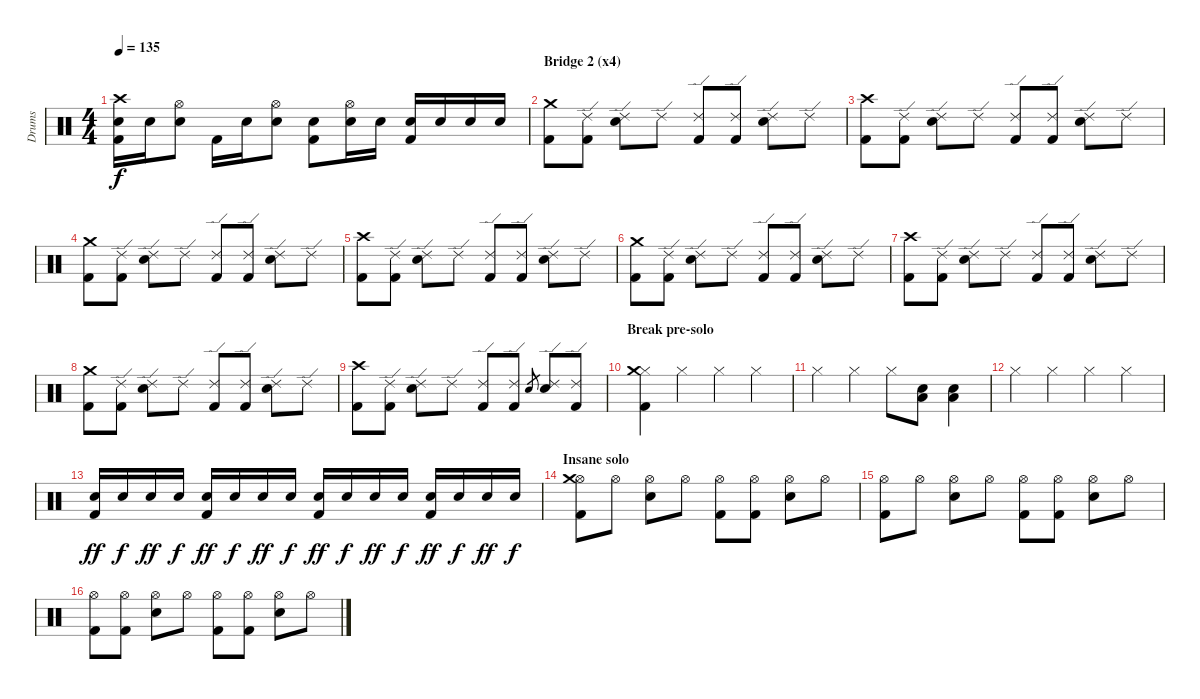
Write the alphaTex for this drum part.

\track ("Drums" "Drums") {instrument percussion}
\staff {score}
\articulation defaults
\ts (4 4)
\tempo 135
\clef neutral
\ks c
("Crash high (hit)" "Snare (hit) 2" "Kick (hit) 2").16{dy f} "Snare (hit) 2".16 ("Hi-Hat (open)" "Snare (hit) 2").8 "Kick (hit) 2".16 "Snare (hit) 2".16 ("Hi-Hat (open)" "Snare (hit) 2").8 ("Snare (hit) 2" "Kick (hit) 2").8 ("Hi-Hat (open)" "Snare (hit) 2").16 "Snare (hit) 2".16 ("Snare (hit) 2" "Kick (hit) 2").16 "Snare (hit) 2".16 "Snare (hit) 2".16 "Snare (hit) 2".16 |
\section ("" "Bridge 2 (x4)")
("Crash medium (hit)" "Kick (hit) 2").8 ("Ride (edge) 2" "Kick (hit) 2").8 ("Ride (edge) 2" "Snare (hit) 2").8 "Ride (edge) 2".8 ("Ride (edge) 2" "Kick (hit) 2").8 ("Ride (edge) 2" "Kick (hit) 2").8 ("Ride (edge) 2" "Snare (hit) 2").8 "Ride (edge) 2".8 |
("Crash high (hit)" "Kick (hit) 2").8 ("Ride (edge) 2" "Kick (hit) 2").8 ("Ride (edge) 2" "Snare (hit) 2").8 "Ride (edge) 2".8 ("Ride (edge) 2" "Kick (hit) 2").8 ("Ride (edge) 2" "Kick (hit) 2").8 ("Ride (edge) 2" "Snare (hit) 2").8 "Ride (edge) 2".8 |
("Crash medium (hit)" "Kick (hit) 2").8 ("Ride (edge) 2" "Kick (hit) 2").8 ("Ride (edge) 2" "Snare (hit) 2").8 "Ride (edge) 2".8 ("Ride (edge) 2" "Kick (hit) 2").8 ("Ride (edge) 2" "Kick (hit) 2").8 ("Ride (edge) 2" "Snare (hit) 2").8 "Ride (edge) 2".8 |
("Crash high (hit)" "Kick (hit) 2").8 ("Ride (edge) 2" "Kick (hit) 2").8 ("Ride (edge) 2" "Snare (hit) 2").8 "Ride (edge) 2".8 ("Ride (edge) 2" "Kick (hit) 2").8 ("Ride (edge) 2" "Kick (hit) 2").8 ("Ride (edge) 2" "Snare (hit) 2").8 "Ride (edge) 2".8 |
("Crash medium (hit)" "Kick (hit) 2").8 ("Ride (edge) 2" "Kick (hit) 2").8 ("Ride (edge) 2" "Snare (hit) 2").8 "Ride (edge) 2".8 ("Ride (edge) 2" "Kick (hit) 2").8 ("Ride (edge) 2" "Kick (hit) 2").8 ("Ride (edge) 2" "Snare (hit) 2").8 "Ride (edge) 2".8 |
("Crash high (hit)" "Kick (hit) 2").8 ("Ride (edge) 2" "Kick (hit) 2").8 ("Ride (edge) 2" "Snare (hit) 2").8 "Ride (edge) 2".8 ("Ride (edge) 2" "Kick (hit) 2").8 ("Ride (edge) 2" "Kick (hit) 2").8 ("Ride (edge) 2" "Snare (hit) 2").8 "Ride (edge) 2".8 |
("Crash medium (hit)" "Kick (hit) 2").8 ("Ride (edge) 2" "Kick (hit) 2").8 ("Ride (edge) 2" "Snare (hit) 2").8 "Ride (edge) 2".8 ("Ride (edge) 2" "Kick (hit) 2").8 ("Ride (edge) 2" "Kick (hit) 2").8 ("Ride (edge) 2" "Snare (hit) 2").8 "Ride (edge) 2".8 |
("Crash high (hit)" "Kick (hit) 2").8 ("Ride (edge) 2" "Kick (hit) 2").8 ("Ride (edge) 2" "Snare (hit) 2").8 "Ride (edge) 2".8 ("Ride (edge) 2" "Kick (hit) 2").8 ("Ride (edge) 2" "Kick (hit) 2").8 "Snare (hit) 2".8{gr} ("Ride (edge) 2" "Snare (hit) 2").8 ("Ride (edge) 2" "Kick (hit) 2").8 |
\section ("" "Break pre-solo")
("Hi-Hat (closed)" "Crash medium (hit)" "Kick (hit) 2").4 "Hi-Hat (closed)".4 "Hi-Hat (closed)".4 "Hi-Hat (closed)".4 |
"Hi-Hat (closed)".4 "Hi-Hat (closed)".4 "Hi-Hat (closed)".8 ("Low Tom (hit)" "Snare (hit) 2").8 ("Low Tom (hit)" "Snare (hit) 2").4 |
"Hi-Hat (closed)".4 "Hi-Hat (closed)".4 "Hi-Hat (closed)".4 "Hi-Hat (closed)".4 |
("Snare (hit) 2" "Kick (hit) 2").16{dy ff} "Snare (hit) 2".16{dy f} "Snare (hit) 2".16{dy ff} "Snare (hit) 2".16{dy f} ("Snare (hit) 2" "Kick (hit) 2").16{dy ff} "Snare (hit) 2".16{dy f} "Snare (hit) 2".16{dy ff} "Snare (hit) 2".16{dy f} ("Snare (hit) 2" "Kick (hit) 2").16{dy ff} "Snare (hit) 2".16{dy f} "Snare (hit) 2".16{dy ff} "Snare (hit) 2".16{dy f} ("Snare (hit) 2" "Kick (hit) 2").16{dy ff} "Snare (hit) 2".16{dy f} "Snare (hit) 2".16{dy ff} "Snare (hit) 2".16{dy f} |
\section ("" "Insane solo")
("Hi-Hat (open)" "Crash medium (hit)" "Kick (hit) 2").8 "Hi-Hat (open)".8 ("Hi-Hat (open)" "Snare (hit) 2").8 "Hi-Hat (open)".8 ("Hi-Hat (open)" "Kick (hit) 2").8 ("Hi-Hat (open)" "Kick (hit) 2").8 ("Hi-Hat (open)" "Snare (hit) 2").8 "Hi-Hat (open)".8 |
("Hi-Hat (open)" "Kick (hit) 2").8 "Hi-Hat (open)".8 ("Hi-Hat (open)" "Snare (hit) 2").8 "Hi-Hat (open)".8 ("Hi-Hat (open)" "Kick (hit) 2").8 ("Hi-Hat (open)" "Kick (hit) 2").8 ("Hi-Hat (open)" "Snare (hit) 2").8 "Hi-Hat (open)".8 |
("Hi-Hat (open)" "Kick (hit) 2").8 ("Hi-Hat (open)" "Kick (hit) 2").8 ("Hi-Hat (open)" "Snare (hit) 2").8 "Hi-Hat (open)".8 ("Hi-Hat (open)" "Kick (hit) 2").8 ("Hi-Hat (open)" "Kick (hit) 2").8 ("Hi-Hat (open)" "Snare (hit) 2").8 "Hi-Hat (open)".8
